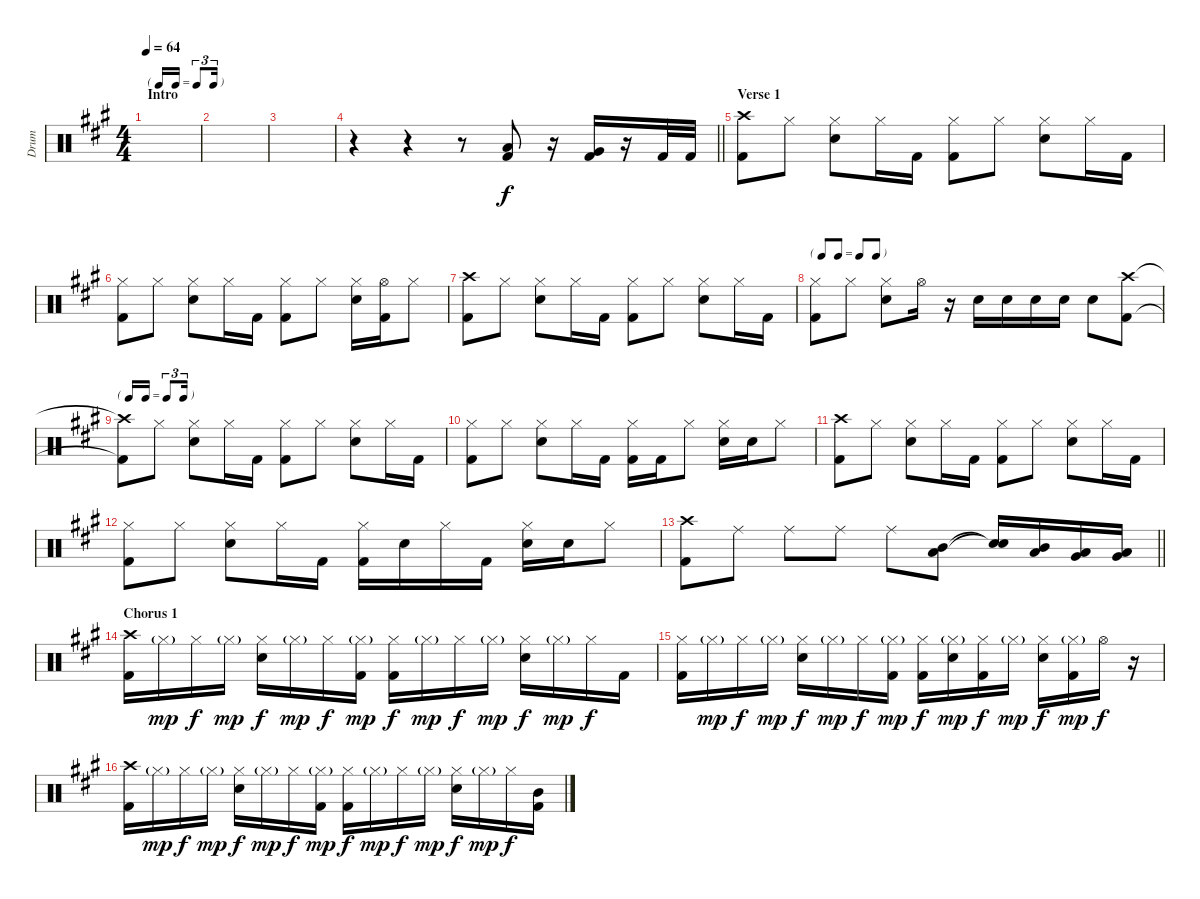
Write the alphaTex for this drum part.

\track ("Drum" "Drum") {instrument percussion}
\staff {score}
\articulation defaults
\ts (4 4)
\tf triplet16th
\section ("" "Intro")
\tempo 64
\clef neutral
\ks a
|
|
|
\barLineRight lightlight
r.4 r.4 r.8 ("Low Tom (hit)" "Kick (hit) 2").8 r.16 ("Very Low Tom (hit)" "Kick (hit) 2").16 r.16 "Kick (hit) 2".32 "Kick (hit) 2".32 |
\section ("" "Verse 1")
("Crash high (hit)" "Kick (hit) 2").8 "Hi-Hat (closed)".8 ("Hi-Hat (closed)" "Electric Snare (hit)").8 "Hi-Hat (closed)".16 "Kick (hit) 2".16 ("Hi-Hat (closed)" "Kick (hit) 2").8 "Hi-Hat (closed)".8 ("Hi-Hat (closed)" "Electric Snare (hit)").8 "Hi-Hat (closed)".16 "Kick (hit) 2".16 |
("Hi-Hat (closed)" "Kick (hit) 2").8 "Hi-Hat (closed)".8 ("Hi-Hat (closed)" "Electric Snare (hit)").8 "Hi-Hat (closed)".16 "Kick (hit) 2".16 ("Hi-Hat (closed)" "Kick (hit) 2").8 "Hi-Hat (closed)".8 ("Hi-Hat (closed)" "Electric Snare (hit)").16 ("Hi-Hat (open)" "Kick (hit) 2").16 "Hi-Hat (closed)".8 |
("Crash high (hit)" "Kick (hit) 2").8 "Hi-Hat (closed)".8 ("Hi-Hat (closed)" "Electric Snare (hit)").8 "Hi-Hat (closed)".16 "Kick (hit) 2".16 ("Hi-Hat (closed)" "Kick (hit) 2").8 "Hi-Hat (closed)".8 ("Hi-Hat (closed)" "Electric Snare (hit)").8 "Hi-Hat (closed)".16 "Kick (hit) 2".16 |
\tf none
("Hi-Hat (closed)" "Kick (hit) 2").8 "Hi-Hat (closed)".8 ("Hi-Hat (closed)" "Electric Snare (hit)").8 "Hi-Hat (open)".16 r.16 "Electric Snare (hit)".16 "Electric Snare (hit)".16 "Electric Snare (hit)".16 "Electric Snare (hit)".16 "Electric Snare (hit)".8 ("Crash high (hit)" "Kick (hit) 2").8 |
\tf triplet16th
("Crash high (hit)"{t} "Kick (hit) 2"{t}).8 "Hi-Hat (closed)".8 ("Hi-Hat (closed)" "Electric Snare (hit)").8 "Hi-Hat (closed)".16 "Kick (hit) 2".16 ("Hi-Hat (closed)" "Kick (hit) 2").8 "Hi-Hat (closed)".8 ("Hi-Hat (closed)" "Electric Snare (hit)").8 "Hi-Hat (closed)".16 "Kick (hit) 2".16 |
("Hi-Hat (closed)" "Kick (hit) 2").8 "Hi-Hat (closed)".8 ("Hi-Hat (closed)" "Electric Snare (hit)").8 "Hi-Hat (closed)".16 "Kick (hit) 2".16 ("Hi-Hat (closed)" "Kick (hit) 2").16 "Kick (hit) 2".16 "Hi-Hat (closed)".8 ("Hi-Hat (closed)" "Electric Snare (hit)").16 "Electric Snare (hit)".16 "Hi-Hat (closed)".8 |
("Crash high (hit)" "Kick (hit) 2").8 "Hi-Hat (closed)".8 ("Hi-Hat (closed)" "Electric Snare (hit)").8 "Hi-Hat (closed)".16 "Kick (hit) 2".16 ("Hi-Hat (closed)" "Kick (hit) 2").8 "Hi-Hat (closed)".8 ("Hi-Hat (closed)" "Electric Snare (hit)").8 "Hi-Hat (closed)".16 "Kick (hit) 2".16 |
("Hi-Hat (closed)" "Kick (hit) 2").8 "Hi-Hat (closed)".8 ("Hi-Hat (closed)" "Electric Snare (hit)").8 "Hi-Hat (closed)".16 "Kick (hit) 2".16 ("Hi-Hat (closed)" "Kick (hit) 2").16 "Electric Snare (hit)".16 "Hi-Hat (closed)".16 "Kick (hit) 2".16 ("Hi-Hat (closed)" "Electric Snare (hit)").16 "Electric Snare (hit)".16 "Hi-Hat (closed)".8 |
\barLineRight lightlight
("Crash high (hit)" "Kick (hit) 2").8 "Ride (middle)".8 "Ride (middle)".8 "Ride (middle)".8 "Ride (middle)".8 ("Mid Tom (hit)" "Low Tom (hit)").8 ("Snare (hit)"{t} "Snare (hit)"{t}).16 ("Mid Tom (hit)" "Low Tom (hit)").16 ("Low Tom (hit)" "Very Low Tom (hit)").16 ("Low Tom (hit)" "Very Low Tom (hit)").16 |
\section ("" "Chorus 1")
("Crash high (hit)" "Kick (hit) 2").16 "Hi-Hat (closed)"{g}.16{dy mp} "Hi-Hat (closed)".16{dy f} "Hi-Hat (closed)"{g}.16{dy mp} ("Hi-Hat (closed)" "Electric Snare (hit)").16{dy f} "Hi-Hat (closed)"{g}.16{dy mp} "Hi-Hat (closed)".16{dy f} ("Hi-Hat (closed)"{g} "Kick (hit) 2").16{dy mp} ("Hi-Hat (closed)" "Kick (hit) 2").16{dy f} "Hi-Hat (closed)"{g}.16{dy mp} "Hi-Hat (closed)".16{dy f} "Hi-Hat (closed)"{g}.16{dy mp} ("Hi-Hat (closed)" "Electric Snare (hit)").16{dy f} "Hi-Hat (closed)"{g}.16{dy mp} "Hi-Hat (closed)".16{dy f} "Kick (hit) 2".16 |
("Hi-Hat (closed)" "Kick (hit) 2").16 "Hi-Hat (closed)"{g}.16{dy mp} "Hi-Hat (closed)".16{dy f} "Hi-Hat (closed)"{g}.16{dy mp} ("Hi-Hat (closed)" "Electric Snare (hit)").16{dy f} "Hi-Hat (closed)"{g}.16{dy mp} "Hi-Hat (closed)".16{dy f} ("Hi-Hat (closed)"{g} "Kick (hit) 2").16{dy mp} ("Hi-Hat (closed)" "Kick (hit) 2").16{dy f} ("Hi-Hat (closed)"{g} "Electric Snare (hit)").16{dy mp} ("Hi-Hat (closed)" "Kick (hit) 2").16{dy f} "Hi-Hat (closed)"{g}.16{dy mp} ("Hi-Hat (closed)" "Electric Snare (hit)").16{dy f} ("Hi-Hat (closed)"{g} "Kick (hit) 2").16{dy mp} "Hi-Hat (open)".16{dy f} r.16 |
("Crash high (hit)" "Kick (hit) 2").16 "Hi-Hat (closed)"{g}.16{dy mp} "Hi-Hat (closed)".16{dy f} "Hi-Hat (closed)"{g}.16{dy mp} ("Hi-Hat (closed)" "Electric Snare (hit)").16{dy f} "Hi-Hat (closed)"{g}.16{dy mp} "Hi-Hat (closed)".16{dy f} ("Hi-Hat (closed)"{g} "Kick (hit) 2").16{dy mp} ("Hi-Hat (closed)" "Kick (hit) 2").16{dy f} "Hi-Hat (closed)"{g}.16{dy mp} "Hi-Hat (closed)".16{dy f} "Hi-Hat (closed)"{g}.16{dy mp} ("Hi-Hat (closed)" "Electric Snare (hit)").16{dy f} "Hi-Hat (closed)"{g}.16{dy mp} "Hi-Hat (closed)".16{dy f} ("Mid Tom (hit)" "Kick (hit) 2").16
